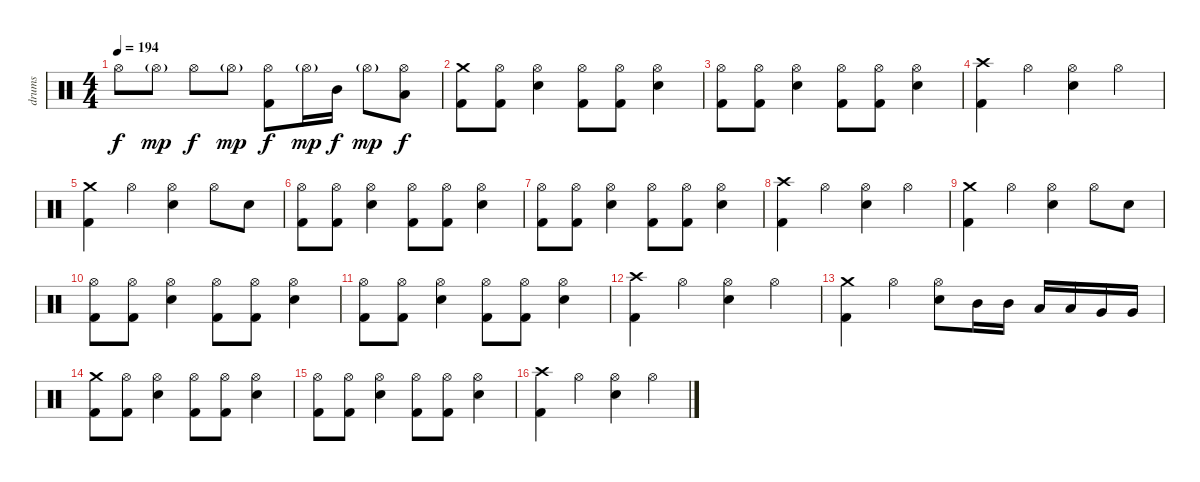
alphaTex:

\track ("drums" "drums") {instrument percussion}
\staff {score}
\articulation defaults
\ts (4 4)
\tempo 194
\clef neutral
\ks c "Hi-Hat (open)".8{dy f} "Hi-Hat (open)"{g}.8{dy mp} "Hi-Hat (open)".8{dy f} "Hi-Hat (open)"{g}.8{dy mp}
("Hi-Hat (open)" "Kick (hit) 2").8{dy f} "Hi-Hat (open)"{g}.16{dy mp} "Mid Tom (hit)".16{dy f} "Hi-Hat (open)"{g}.8{dy mp} ("Hi-Hat (open)" "Low Tom (hit)").8{dy f} |
("Crash medium (hit)" "Kick (hit) 2").8 ("Hi-Hat (open)" "Kick (hit) 2").8 ("Hi-Hat (open)" "Electric Snare (hit)").4 ("Hi-Hat (open)" "Kick (hit) 2").8 ("Hi-Hat (open)" "Kick (hit) 2").8 ("Hi-Hat (open)" "Electric Snare (hit)").4 |
("Hi-Hat (open)" "Kick (hit) 2").8 ("Hi-Hat (open)" "Kick (hit) 2").8 ("Hi-Hat (open)" "Electric Snare (hit)").4 ("Hi-Hat (open)" "Kick (hit) 2").8 ("Hi-Hat (open)" "Kick (hit) 2").8 ("Hi-Hat (open)" "Electric Snare (hit)").4 |
("Crash high (hit)" "Kick (hit) 2").4 "Hi-Hat (open)".4 ("Hi-Hat (open)" "Electric Snare (hit)").4 "Hi-Hat (open)".4 |
("Crash medium (hit)" "Kick (hit) 2").4 "Hi-Hat (open)".4 ("Hi-Hat (open)" "Electric Snare (hit)").4 "Hi-Hat (open)".8 "Electric Snare (hit)".8 |
("Hi-Hat (open)" "Kick (hit) 2").8 ("Hi-Hat (open)" "Kick (hit) 2").8 ("Hi-Hat (open)" "Electric Snare (hit)").4 ("Hi-Hat (open)" "Kick (hit) 2").8 ("Hi-Hat (open)" "Kick (hit) 2").8 ("Hi-Hat (open)" "Electric Snare (hit)").4 |
("Hi-Hat (open)" "Kick (hit) 2").8 ("Hi-Hat (open)" "Kick (hit) 2").8 ("Hi-Hat (open)" "Electric Snare (hit)").4 ("Hi-Hat (open)" "Kick (hit) 2").8 ("Hi-Hat (open)" "Kick (hit) 2").8 ("Hi-Hat (open)" "Electric Snare (hit)").4 |
("Crash high (hit)" "Kick (hit) 2").4 "Hi-Hat (open)".4 ("Hi-Hat (open)" "Electric Snare (hit)").4 "Hi-Hat (open)".4 |
("Crash medium (hit)" "Kick (hit) 2").4 "Hi-Hat (open)".4 ("Hi-Hat (open)" "Electric Snare (hit)").4 "Hi-Hat (open)".8 "Electric Snare (hit)".8 |
("Hi-Hat (open)" "Kick (hit) 2").8 ("Hi-Hat (open)" "Kick (hit) 2").8 ("Hi-Hat (open)" "Electric Snare (hit)").4 ("Hi-Hat (open)" "Kick (hit) 2").8 ("Hi-Hat (open)" "Kick (hit) 2").8 ("Hi-Hat (open)" "Electric Snare (hit)").4 |
("Hi-Hat (open)" "Kick (hit) 2").8 ("Hi-Hat (open)" "Kick (hit) 2").8 ("Hi-Hat (open)" "Electric Snare (hit)").4 ("Hi-Hat (open)" "Kick (hit) 2").8 ("Hi-Hat (open)" "Kick (hit) 2").8 ("Hi-Hat (open)" "Electric Snare (hit)").4 |
("Crash high (hit)" "Kick (hit) 2").4 "Hi-Hat (open)".4 ("Hi-Hat (open)" "Electric Snare (hit)").4 "Hi-Hat (open)".4 |
("Crash medium (hit)" "Kick (hit) 2").4 "Hi-Hat (open)".4 ("Hi-Hat (open)" "Electric Snare (hit)").8 "Mid Tom (hit)".16 "Mid Tom (hit)".16 "Low Tom (hit)".16 "Low Tom (hit)".16 "Very Low Tom (hit)".16 "Very Low Tom (hit)".16 |
("Crash medium (hit)" "Kick (hit) 2").8 ("Hi-Hat (open)" "Kick (hit) 2").8 ("Hi-Hat (open)" "Electric Snare (hit)").4 ("Hi-Hat (open)" "Kick (hit) 2").8 ("Hi-Hat (open)" "Kick (hit) 2").8 ("Hi-Hat (open)" "Electric Snare (hit)").4 |
("Hi-Hat (open)" "Kick (hit) 2").8 ("Hi-Hat (open)" "Kick (hit) 2").8 ("Hi-Hat (open)" "Electric Snare (hit)").4 ("Hi-Hat (open)" "Kick (hit) 2").8 ("Hi-Hat (open)" "Kick (hit) 2").8 ("Hi-Hat (open)" "Electric Snare (hit)").4 |
("Crash high (hit)" "Kick (hit) 2").4 "Hi-Hat (open)".4 ("Hi-Hat (open)" "Electric Snare (hit)").4 "Hi-Hat (open)".4
